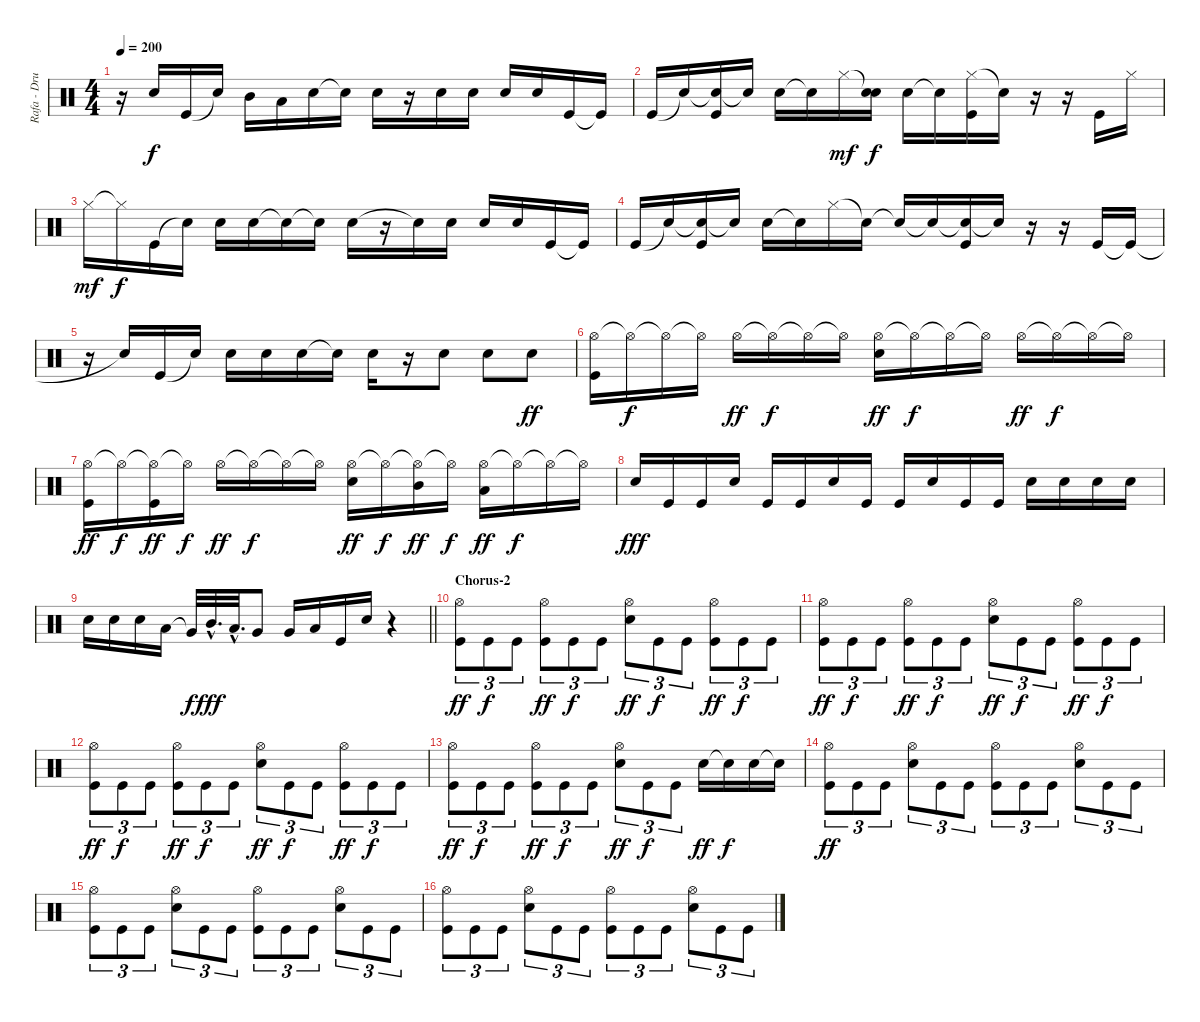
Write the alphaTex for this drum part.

\track ("Rafa - Drums" "Rafa - Dru") {instrument percussion}
\staff {score}
\articulation defaults
\ts (4 4)
\tempo 200
\clef neutral
\ks c
r.16{dy f} "Snare (hit)"{t}.16 "Kick (hit)".16 "Snare (hit)"{t}.16 "Mid Tom (hit)".16 "Low Tom (hit)".16 "Electric Snare (hit)".16 "Snare (hit)"{t}.16 "Electric Snare (hit)".16 r.16 "Electric Snare (hit)".16 "Electric Snare (hit)".16 "Electric Snare (hit)".16 "Electric Snare (hit)".16 "Kick (hit)".16 "Kick (hit)"{t}.16 |
"Kick (hit)".16 "Snare (hit)"{t}.16 ("Snare (hit)"{t} "Kick (hit)").16 "Snare (hit)"{t}.16 "Electric Snare (hit)".16 "Snare (hit)"{t}.16 "Hi-Hat (closed)".16{dy mf} ("Snare (hit)"{t} "Electric Snare (hit)").16{dy f} "Electric Snare (hit)".16 "Snare (hit)"{t}.16 ("Hi-Hat (closed)" "Kick (hit)").16 "Snare (hit)"{t}.16 r.16 r.16 "Kick (hit)".16 "Hi-Hat (closed)".16 |
"Hi-Hat (closed)".16{dy mf} "Hi-Hat (closed)"{t}.16{dy f} "Kick (hit)".16 "Snare (hit)"{t}.16 "Electric Snare (hit)".16 "Electric Snare (hit)".16 "Electric Snare (hit)"{t}.16 "Snare (hit)"{t}.16 "Electric Snare (hit)".16 r.16 "Electric Snare (hit)"{t}.16 "Electric Snare (hit)".16 "Electric Snare (hit)".16 "Electric Snare (hit)".16 "Kick (hit)".16 "Kick (hit)"{t}.16 |
"Kick (hit)".16 "Snare (hit)"{t}.16 ("Snare (hit)"{t} "Kick (hit)").16 "Snare (hit)"{t}.16 "Electric Snare (hit)".16 "Snare (hit)"{t}.16 "Hi-Hat (closed)".16 "Snare (hit)"{t}.16 "Snare (hit)"{t}.16 "Snare (hit)"{t}.16 ("Snare (hit)"{t} "Kick (hit)").16 "Snare (hit)"{t}.16 r.16 r.16 "Kick (hit)".16 "Kick (hit)"{t}.16 |
r.16 "Snare (hit)"{t}.16 "Kick (hit)".16 "Snare (hit)"{t}.16 "Electric Snare (hit)".16 "Electric Snare (hit)".16 "Electric Snare (hit)".16 "Snare (hit)"{t}.16 "Electric Snare (hit)".16 r.16 "Electric Snare (hit)".8 "Electric Snare (hit)".8 "Electric Snare (hit)".8{dy ff} |
("Hi-Hat (open)" "Kick (hit)").16 "Hi-Hat (open)"{t}.16{dy f} "Hi-Hat (open)"{t}.16 "Hi-Hat (open)"{t}.16 "Hi-Hat (open)".16{dy ff} "Hi-Hat (open)"{t}.16{dy f} "Hi-Hat (open)"{t}.16 "Hi-Hat (open)"{t}.16 ("Hi-Hat (open)" "Electric Snare (hit)").16{dy ff} "Hi-Hat (open)"{t}.16{dy f} "Hi-Hat (open)"{t}.16 "Hi-Hat (open)"{t}.16 "Hi-Hat (open)".16{dy ff} "Hi-Hat (open)"{t}.16{dy f} "Hi-Hat (open)"{t}.16 "Hi-Hat (open)"{t}.16 |
("Hi-Hat (open)" "Kick (hit)").16{dy ff} "Hi-Hat (open)"{t}.16{dy f} ("Hi-Hat (open)"{t} "Kick (hit)").16{dy ff} "Hi-Hat (open)"{t}.16{dy f} "Hi-Hat (open)".16{dy ff} "Hi-Hat (open)"{t}.16{dy f} "Hi-Hat (open)"{t}.16 "Hi-Hat (open)"{t}.16 ("Hi-Hat (open)" "Electric Snare (hit)").16{dy ff} "Hi-Hat (open)"{t}.16{dy f} ("Hi-Hat (open)"{t} "Mid Tom (hit)").16{dy ff} "Hi-Hat (open)"{t}.16{dy f} ("Hi-Hat (open)" "Low Floor Tom (hit)").16{dy ff} "Hi-Hat (open)"{t}.16{dy f} "Hi-Hat (open)"{t}.16 "Hi-Hat (open)"{t}.16 |
"Electric Snare (hit)".16{dy fff} "Kick (hit)".16 "Kick (hit)".16 "Electric Snare (hit)".16 "Kick (hit)".16 "Kick (hit)".16 "Electric Snare (hit)".16 "Kick (hit)".16 "Kick (hit)".16 "Electric Snare (hit)".16 "Kick (hit)".16 "Kick (hit)".16 "Electric Snare (hit)".16 "Electric Snare (hit)".16 "Electric Snare (hit)".16 "Electric Snare (hit)".16 |
\barLineRight lightlight "Electric Snare (hit)".16 "Snare (hit) 2".16 "Snare (hit) 2".16 "Low Tom (hit)".16 "Very Low Tom (hit)"{t}.32{dy f} "Mid Tom (hit)"{hac}.32{d dy fff} "Low Tom (hit)"{hac}.32{d} "Very Low Tom (hit)".8 "Very Low Tom (hit)".16 "Low Floor Tom (hit)".16 "Kick (hit)".16 "Electric Snare (hit)".16
r.4 |
\section ("" "Chorus-2")
("Hi-Hat (open)" "Kick (hit)").8{tu (3 2) dy ff} "Kick (hit)".8{tu (3 2) dy f} "Kick (hit)".8{tu (3 2)} ("Hi-Hat (open)" "Kick (hit)").8{tu (3 2) dy ff} "Kick (hit)".8{tu (3 2) dy f} "Kick (hit)".8{tu (3 2)} ("Hi-Hat (open)" "Electric Snare (hit)").8{tu (3 2) dy ff} "Kick (hit)".8{tu (3 2) dy f} "Kick (hit)".8{tu (3 2)} ("Hi-Hat (open)" "Kick (hit)").8{tu (3 2) dy ff} "Kick (hit)".8{tu (3 2) dy f} "Kick (hit)".8{tu (3 2)} |
("Hi-Hat (open)" "Kick (hit)").8{tu (3 2) dy ff} "Kick (hit)".8{tu (3 2) dy f} "Kick (hit)".8{tu (3 2)} ("Hi-Hat (open)" "Kick (hit)").8{tu (3 2) dy ff} "Kick (hit)".8{tu (3 2) dy f} "Kick (hit)".8{tu (3 2)} ("Hi-Hat (open)" "Electric Snare (hit)").8{tu (3 2) dy ff} "Kick (hit)".8{tu (3 2) dy f} "Kick (hit)".8{tu (3 2)} ("Hi-Hat (open)" "Kick (hit)").8{tu (3 2) dy ff} "Kick (hit)".8{tu (3 2) dy f} "Kick (hit)".8{tu (3 2)} |
("Hi-Hat (open)" "Kick (hit)").8{tu (3 2) dy ff} "Kick (hit)".8{tu (3 2) dy f} "Kick (hit)".8{tu (3 2)} ("Hi-Hat (open)" "Kick (hit)").8{tu (3 2) dy ff} "Kick (hit)".8{tu (3 2) dy f} "Kick (hit)".8{tu (3 2)} ("Hi-Hat (open)" "Electric Snare (hit)").8{tu (3 2) dy ff} "Kick (hit)".8{tu (3 2) dy f} "Kick (hit)".8{tu (3 2)} ("Hi-Hat (open)" "Kick (hit)").8{tu (3 2) dy ff} "Kick (hit)".8{tu (3 2) dy f} "Kick (hit)".8{tu (3 2)} |
("Hi-Hat (open)" "Kick (hit)").8{tu (3 2) dy ff} "Kick (hit)".8{tu (3 2) dy f} "Kick (hit)".8{tu (3 2)} ("Hi-Hat (open)" "Kick (hit)").8{tu (3 2) dy ff} "Kick (hit)".8{tu (3 2) dy f} "Kick (hit)".8{tu (3 2)} ("Hi-Hat (open)" "Electric Snare (hit)").8{tu (3 2) dy ff} "Kick (hit)".8{tu (3 2) dy f} "Kick (hit)".8{tu (3 2)} "Electric Snare (hit)".16{dy ff} "Electric Snare (hit)"{t}.16{dy f} "Electric Snare (hit)".16 "Snare (hit)"{t}.16 |
("Hi-Hat (open)" "Kick (hit)").8{tu (3 2) dy ff} "Kick (hit)".8{tu (3 2)} "Kick (hit)".8{tu (3 2)} ("Hi-Hat (open)" "Electric Snare (hit)").8{tu (3 2)} "Kick (hit)".8{tu (3 2)} "Kick (hit)".8{tu (3 2)} ("Hi-Hat (open)" "Kick (hit)").8{tu (3 2)} "Kick (hit)".8{tu (3 2)} "Kick (hit)".8{tu (3 2)} ("Hi-Hat (open)" "Electric Snare (hit)").8{tu (3 2)} "Kick (hit)".8{tu (3 2)} "Kick (hit)".8{tu (3 2)} |
("Hi-Hat (open)" "Kick (hit)").8{tu (3 2)} "Kick (hit)".8{tu (3 2)} "Kick (hit)".8{tu (3 2)} ("Hi-Hat (open)" "Electric Snare (hit)").8{tu (3 2)} "Kick (hit)".8{tu (3 2)} "Kick (hit)".8{tu (3 2)} ("Hi-Hat (open)" "Kick (hit)").8{tu (3 2)} "Kick (hit)".8{tu (3 2)} "Kick (hit)".8{tu (3 2)} ("Hi-Hat (open)" "Electric Snare (hit)").8{tu (3 2)} "Kick (hit)".8{tu (3 2)} "Kick (hit)".8{tu (3 2)} |
("Hi-Hat (open)" "Kick (hit)").8{tu (3 2)} "Kick (hit)".8{tu (3 2)} "Kick (hit)".8{tu (3 2)} ("Hi-Hat (open)" "Electric Snare (hit)").8{tu (3 2)} "Kick (hit)".8{tu (3 2)} "Kick (hit)".8{tu (3 2)} ("Hi-Hat (open)" "Kick (hit)").8{tu (3 2)} "Kick (hit)".8{tu (3 2)} "Kick (hit)".8{tu (3 2)} ("Hi-Hat (open)" "Electric Snare (hit)").8{tu (3 2)} "Kick (hit)".8{tu (3 2)} "Kick (hit)".8{tu (3 2)}
